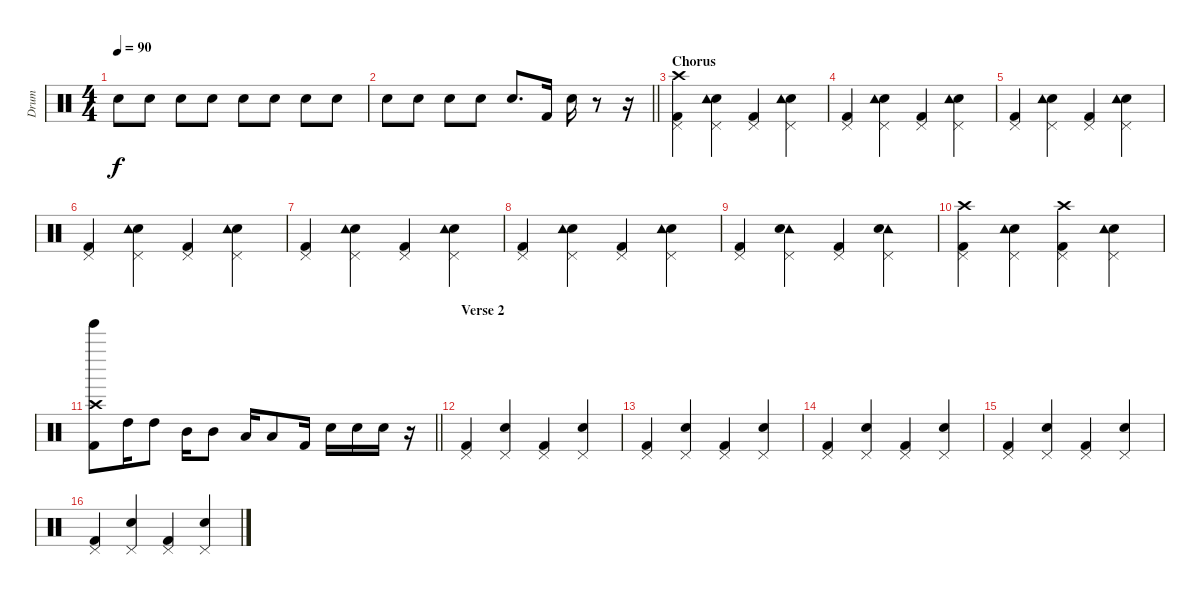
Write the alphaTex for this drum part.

\track ("Drum" "Drum") {instrument percussion}
\staff {score}
\articulation defaults
\ts (4 4)
\tempo 90
\clef neutral
\ks c "Electric Snare (hit)".8{dy f volume 11} "Electric Snare (hit)".8 "Electric Snare (hit)".8 "Electric Snare (hit)".8 "Electric Snare (hit)".8 "Electric Snare (hit)".8 "Electric Snare (hit)".8 "Electric Snare (hit)".8
|
\barLineRight lightlight "Electric Snare (hit)".8 "Electric Snare (hit)".8 "Electric Snare (hit)".8 "Electric Snare (hit)".8 "Electric Snare (hit)".8{d} "Kick (hit) 2".16 "Electric Snare (hit)".16
r.8 r.16 |
\section ("" "Chorus")
("Pedal Hi-Hat (hit)" "Kick (hit) 2" "Crash high (hit)").4 ("Pedal Hi-Hat (hit)" "Electric Snare (hit)" "Tambourine (hit)").4 ("Pedal Hi-Hat (hit)" "Kick (hit) 2").4 ("Pedal Hi-Hat (hit)" "Electric Snare (hit)" "Tambourine (hit)").4 |
("Pedal Hi-Hat (hit)" "Kick (hit) 2").4 ("Pedal Hi-Hat (hit)" "Electric Snare (hit)" "Tambourine (hit)").4 ("Pedal Hi-Hat (hit)" "Kick (hit) 2").4 ("Pedal Hi-Hat (hit)" "Electric Snare (hit)" "Tambourine (hit)").4 |
("Pedal Hi-Hat (hit)" "Kick (hit) 2").4 ("Pedal Hi-Hat (hit)" "Electric Snare (hit)" "Tambourine (hit)").4 ("Pedal Hi-Hat (hit)" "Kick (hit) 2").4 ("Pedal Hi-Hat (hit)" "Electric Snare (hit)" "Tambourine (hit)").4 |
("Pedal Hi-Hat (hit)" "Kick (hit) 2").4 ("Pedal Hi-Hat (hit)" "Electric Snare (hit)" "Tambourine (hit)").4 ("Pedal Hi-Hat (hit)" "Kick (hit) 2").4 ("Pedal Hi-Hat (hit)" "Electric Snare (hit)" "Tambourine (hit)").4 |
("Pedal Hi-Hat (hit)" "Kick (hit) 2").4 ("Pedal Hi-Hat (hit)" "Electric Snare (hit)" "Tambourine (hit)").4 ("Pedal Hi-Hat (hit)" "Kick (hit) 2").4 ("Pedal Hi-Hat (hit)" "Electric Snare (hit)" "Tambourine (hit)").4 |
("Pedal Hi-Hat (hit)" "Kick (hit) 2").4 ("Pedal Hi-Hat (hit)" "Electric Snare (hit)" "Tambourine (hit)").4 ("Pedal Hi-Hat (hit)" "Kick (hit) 2").4 ("Pedal Hi-Hat (hit)" "Electric Snare (hit)" "Tambourine (hit)").4 |
("Pedal Hi-Hat (hit)" "Kick (hit) 2").4 ("Pedal Hi-Hat (hit)" "Tambourine (hit)" "Electric Snare (hit)").4 ("Pedal Hi-Hat (hit)" "Kick (hit) 2").4 ("Pedal Hi-Hat (hit)" "Tambourine (hit)" "Electric Snare (hit)").4 |
("Pedal Hi-Hat (hit)" "Kick (hit) 2" "Crash high (hit)").4 ("Pedal Hi-Hat (hit)" "Electric Snare (hit)" "Tambourine (hit)").4 ("Pedal Hi-Hat (hit)" "Kick (hit) 2" "Crash high (hit)").4 ("Pedal Hi-Hat (hit)" "Electric Snare (hit)" "Tambourine (hit)").4 |
\barLineRight lightlight
("Tinkle Bell (hit)" "Kick (hit) 2" "Crash high (hit)").8 "High Tom (hit)".16 "High Tom (hit)".8 "Mid Tom (hit)".16 "Mid Tom (hit)".8 "Low Tom (hit)".16 "Low Tom (hit)".8 "Kick (hit) 2".16 "Electric Snare (hit)".16 "Electric Snare (hit)".16 "Electric Snare (hit)".16 r.16 |
\section ("" "Verse 2")
("Pedal Hi-Hat (hit)" "Kick (hit) 2").4 ("Pedal Hi-Hat (hit)" "Electric Snare (hit)").4 ("Pedal Hi-Hat (hit)" "Kick (hit) 2").4 ("Pedal Hi-Hat (hit)" "Electric Snare (hit)").4 |
("Pedal Hi-Hat (hit)" "Kick (hit) 2").4 ("Pedal Hi-Hat (hit)" "Electric Snare (hit)").4 ("Pedal Hi-Hat (hit)" "Kick (hit) 2").4 ("Pedal Hi-Hat (hit)" "Electric Snare (hit)").4 |
("Pedal Hi-Hat (hit)" "Kick (hit) 2").4 ("Pedal Hi-Hat (hit)" "Electric Snare (hit)").4 ("Pedal Hi-Hat (hit)" "Kick (hit) 2").4 ("Pedal Hi-Hat (hit)" "Electric Snare (hit)").4 |
("Pedal Hi-Hat (hit)" "Kick (hit) 2").4 ("Pedal Hi-Hat (hit)" "Electric Snare (hit)").4 ("Pedal Hi-Hat (hit)" "Kick (hit) 2").4 ("Pedal Hi-Hat (hit)" "Electric Snare (hit)").4 |
("Pedal Hi-Hat (hit)" "Kick (hit) 2").4 ("Pedal Hi-Hat (hit)" "Electric Snare (hit)").4 ("Pedal Hi-Hat (hit)" "Kick (hit) 2").4 ("Pedal Hi-Hat (hit)" "Electric Snare (hit)").4
